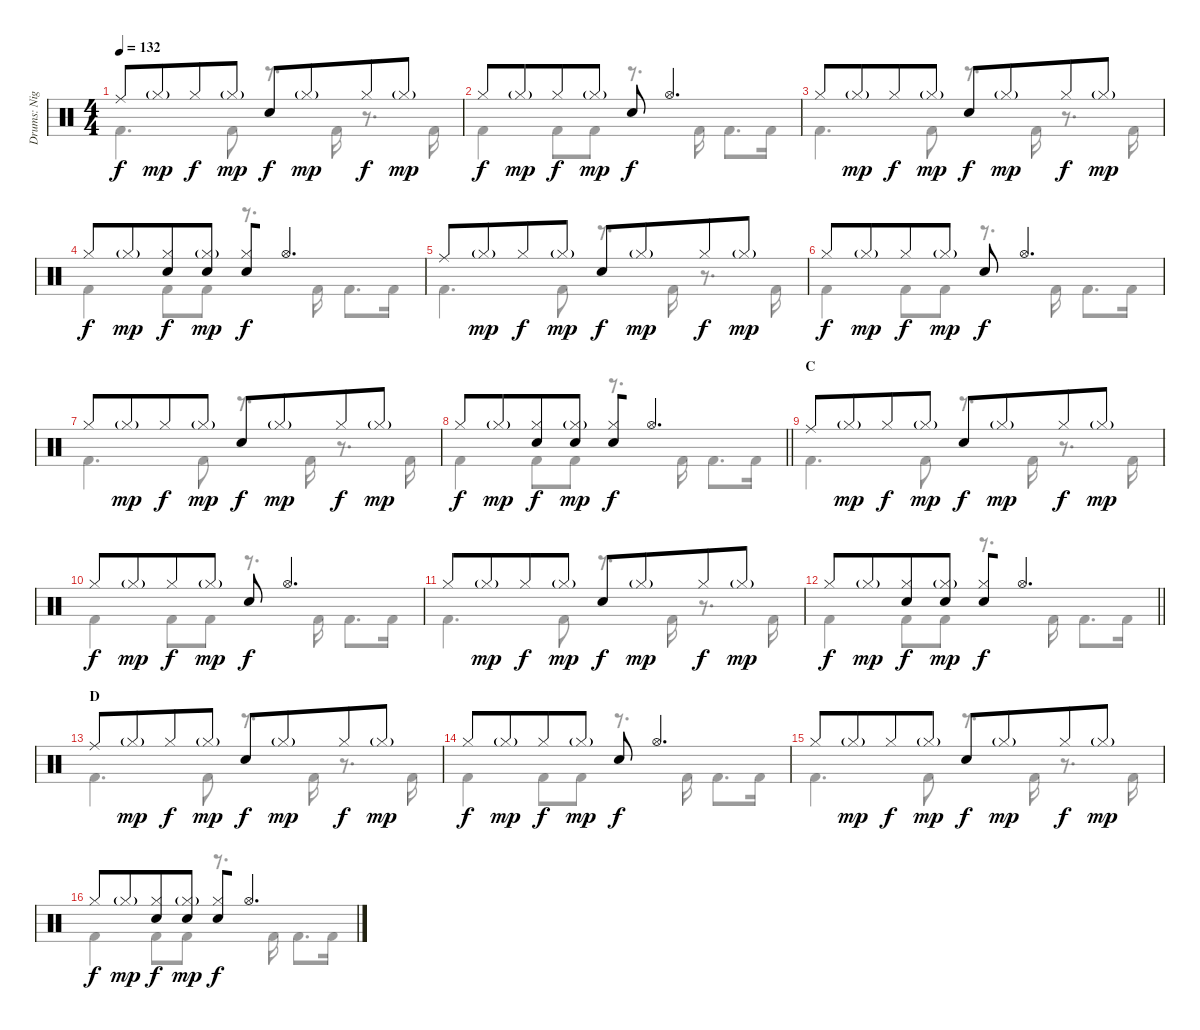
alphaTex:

\track ("Drums: Nigel Ollson" "Drums: Nig") {instrument percussion}
\staff {score}
\articulation defaults
\voice
\ts (4 4)
\tempo 132
\clef neutral
\ks c "Ride (middle)".8{dy f} "Hi-Hat (closed)"{g}.8{dy mp beam merge} "Hi-Hat (closed)".8{dy f} "Hi-Hat (closed)"{g}.8{dy mp} "Electric Snare (hit)".8{dy f} "Hi-Hat (closed)"{g}.8{dy mp beam merge} "Hi-Hat (closed)".8{dy f} "Hi-Hat (closed)"{g}.8{dy mp}
|
"Hi-Hat (closed)".8{dy f} "Hi-Hat (closed)"{g}.8{dy mp beam merge} "Hi-Hat (closed)".8{dy f} "Hi-Hat (closed)"{g}.8{dy mp} "Electric Snare (hit)".8{dy f} "Hi-Hat (open)".4{d} |
"Hi-Hat (closed)".8 "Hi-Hat (closed)"{g}.8{dy mp beam merge} "Hi-Hat (closed)".8{dy f} "Hi-Hat (closed)"{g}.8{dy mp} "Electric Snare (hit)".8{dy f} "Hi-Hat (closed)"{g}.8{dy mp beam merge} "Hi-Hat (closed)".8{dy f} "Hi-Hat (closed)"{g}.8{dy mp} |
"Hi-Hat (closed)".8{dy f} "Hi-Hat (closed)"{g}.8{dy mp beam merge} ("Hi-Hat (closed)" "Electric Snare (hit)").8{dy f} ("Hi-Hat (closed)"{g} "Electric Snare (hit)").8{dy mp} ("Hi-Hat (closed)" "Electric Snare (hit)").8{dy f beam merge} "Hi-Hat (open)".4{d} |
"Ride (middle)".8 "Hi-Hat (closed)"{g}.8{dy mp beam merge} "Hi-Hat (closed)".8{dy f} "Hi-Hat (closed)"{g}.8{dy mp} "Electric Snare (hit)".8{dy f} "Hi-Hat (closed)"{g}.8{dy mp beam merge} "Hi-Hat (closed)".8{dy f} "Hi-Hat (closed)"{g}.8{dy mp} |
"Hi-Hat (closed)".8{dy f} "Hi-Hat (closed)"{g}.8{dy mp beam merge} "Hi-Hat (closed)".8{dy f} "Hi-Hat (closed)"{g}.8{dy mp} "Electric Snare (hit)".8{dy f} "Hi-Hat (open)".4{d} |
"Hi-Hat (closed)".8 "Hi-Hat (closed)"{g}.8{dy mp beam merge} "Hi-Hat (closed)".8{dy f} "Hi-Hat (closed)"{g}.8{dy mp} "Electric Snare (hit)".8{dy f} "Hi-Hat (closed)"{g}.8{dy mp beam merge} "Hi-Hat (closed)".8{dy f} "Hi-Hat (closed)"{g}.8{dy mp} |
\barLineRight lightlight "Hi-Hat (closed)".8{dy f} "Hi-Hat (closed)"{g}.8{dy mp beam merge}
("Hi-Hat (closed)" "Electric Snare (hit)").8{dy f} ("Hi-Hat (closed)"{g} "Electric Snare (hit)").8{dy mp} ("Hi-Hat (closed)" "Electric Snare (hit)").8{dy f beam merge} "Hi-Hat (open)".4{d} |
\section ("" "C")
"Ride (middle)".8 "Hi-Hat (closed)"{g}.8{dy mp beam merge} "Hi-Hat (closed)".8{dy f} "Hi-Hat (closed)"{g}.8{dy mp} "Electric Snare (hit)".8{dy f} "Hi-Hat (closed)"{g}.8{dy mp beam merge} "Hi-Hat (closed)".8{dy f} "Hi-Hat (closed)"{g}.8{dy mp} |
"Hi-Hat (closed)".8{dy f} "Hi-Hat (closed)"{g}.8{dy mp beam merge} "Hi-Hat (closed)".8{dy f} "Hi-Hat (closed)"{g}.8{dy mp} "Electric Snare (hit)".8{dy f} "Hi-Hat (open)".4{d} |
"Hi-Hat (closed)".8 "Hi-Hat (closed)"{g}.8{dy mp beam merge} "Hi-Hat (closed)".8{dy f} "Hi-Hat (closed)"{g}.8{dy mp} "Electric Snare (hit)".8{dy f} "Hi-Hat (closed)"{g}.8{dy mp beam merge} "Hi-Hat (closed)".8{dy f} "Hi-Hat (closed)"{g}.8{dy mp} |
\barLineRight lightlight "Hi-Hat (closed)".8{dy f} "Hi-Hat (closed)"{g}.8{dy mp beam merge}
("Hi-Hat (closed)" "Electric Snare (hit)").8{dy f} ("Hi-Hat (closed)"{g} "Electric Snare (hit)").8{dy mp} ("Hi-Hat (closed)" "Electric Snare (hit)").8{dy f beam merge} "Hi-Hat (open)".4{d} |
\section ("" "D")
"Ride (middle)".8 "Hi-Hat (closed)"{g}.8{dy mp beam merge} "Hi-Hat (closed)".8{dy f} "Hi-Hat (closed)"{g}.8{dy mp} "Electric Snare (hit)".8{dy f} "Hi-Hat (closed)"{g}.8{dy mp beam merge} "Hi-Hat (closed)".8{dy f} "Hi-Hat (closed)"{g}.8{dy mp} |
"Hi-Hat (closed)".8{dy f} "Hi-Hat (closed)"{g}.8{dy mp beam merge} "Hi-Hat (closed)".8{dy f} "Hi-Hat (closed)"{g}.8{dy mp} "Electric Snare (hit)".8{dy f} "Hi-Hat (open)".4{d} |
"Hi-Hat (closed)".8 "Hi-Hat (closed)"{g}.8{dy mp beam merge} "Hi-Hat (closed)".8{dy f} "Hi-Hat (closed)"{g}.8{dy mp} "Electric Snare (hit)".8{dy f} "Hi-Hat (closed)"{g}.8{dy mp beam merge} "Hi-Hat (closed)".8{dy f} "Hi-Hat (closed)"{g}.8{dy mp} |
"Hi-Hat (closed)".8{dy f} "Hi-Hat (closed)"{g}.8{dy mp beam merge} ("Hi-Hat (closed)" "Electric Snare (hit)").8{dy f} ("Hi-Hat (closed)"{g} "Electric Snare (hit)").8{dy mp} ("Hi-Hat (closed)" "Electric Snare (hit)").8{dy f beam merge} "Hi-Hat (open)".4{d}
\voice
\clef neutral
\ottava regular
\simile none
\ks c "Kick (hit) 2".4{d dy f} "Kick (hit) 2".8
r.8{d} "Kick (hit) 2".16 r.8{d} "Kick (hit) 2".16 |
"Kick (hit) 2".4 "Kick (hit) 2".8 "Kick (hit) 2".8 r.8{d} "Kick (hit) 2".16 "Kick (hit) 2".8{d} "Kick (hit) 2".16 |
"Kick (hit) 2".4{d} "Kick (hit) 2".8 r.8{d} "Kick (hit) 2".16 r.8{d} "Kick (hit) 2".16 |
"Kick (hit) 2".4 "Kick (hit) 2".8 "Kick (hit) 2".8 r.8{d} "Kick (hit) 2".16 "Kick (hit) 2".8{d} "Kick (hit) 2".16 |
"Kick (hit) 2".4{d} "Kick (hit) 2".8 r.8{d} "Kick (hit) 2".16 r.8{d} "Kick (hit) 2".16 |
"Kick (hit) 2".4 "Kick (hit) 2".8 "Kick (hit) 2".8 r.8{d} "Kick (hit) 2".16 "Kick (hit) 2".8{d} "Kick (hit) 2".16 |
"Kick (hit) 2".4{d} "Kick (hit) 2".8 r.8{d} "Kick (hit) 2".16 r.8{d} "Kick (hit) 2".16 |
\barLineRight lightlight "Kick (hit) 2".4 "Kick (hit) 2".8 "Kick (hit) 2".8
r.8{d} "Kick (hit) 2".16 "Kick (hit) 2".8{d} "Kick (hit) 2".16 |
"Kick (hit) 2".4{d} "Kick (hit) 2".8 r.8{d} "Kick (hit) 2".16 r.8{d} "Kick (hit) 2".16 |
"Kick (hit) 2".4 "Kick (hit) 2".8 "Kick (hit) 2".8 r.8{d} "Kick (hit) 2".16 "Kick (hit) 2".8{d} "Kick (hit) 2".16 |
"Kick (hit) 2".4{d} "Kick (hit) 2".8 r.8{d} "Kick (hit) 2".16 r.8{d} "Kick (hit) 2".16 |
\barLineRight lightlight "Kick (hit) 2".4 "Kick (hit) 2".8 "Kick (hit) 2".8
r.8{d} "Kick (hit) 2".16 "Kick (hit) 2".8{d} "Kick (hit) 2".16 |
"Kick (hit) 2".4{d} "Kick (hit) 2".8 r.8{d} "Kick (hit) 2".16 r.8{d} "Kick (hit) 2".16 |
"Kick (hit) 2".4 "Kick (hit) 2".8 "Kick (hit) 2".8 r.8{d} "Kick (hit) 2".16 "Kick (hit) 2".8{d} "Kick (hit) 2".16 |
"Kick (hit) 2".4{d} "Kick (hit) 2".8 r.8{d} "Kick (hit) 2".16 r.8{d} "Kick (hit) 2".16 |
"Kick (hit) 2".4 "Kick (hit) 2".8 "Kick (hit) 2".8 r.8{d} "Kick (hit) 2".16 "Kick (hit) 2".8{d} "Kick (hit) 2".16
